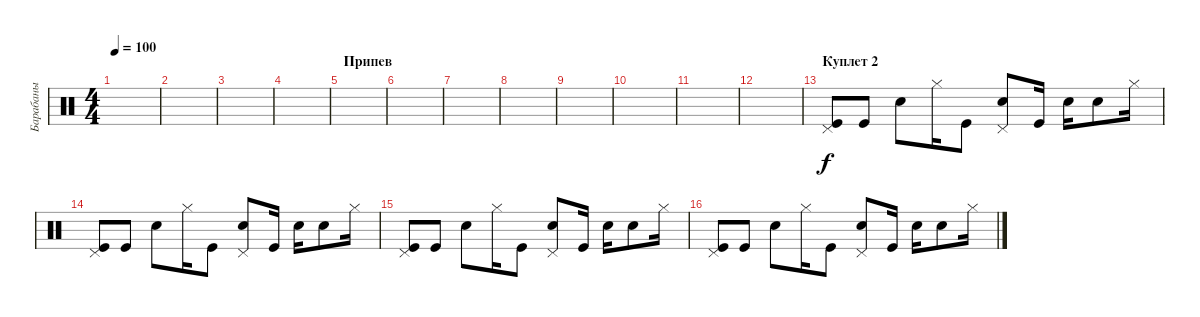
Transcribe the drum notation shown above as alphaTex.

\track ("Барабаны" "Барабаны") {instrument percussion}
\staff {score}
\articulation defaults
\ts (4 4)
\tempo 100
\clef neutral
\ks c
|
|
|
|
\section ("" "Припев")
|
|
|
|
|
|
|
|
\section ("" "Куплет 2")
("Kick (hit)" "Pedal Hi-Hat (hit)").8 "Kick (hit)".8 "Snare (hit) 2".8 "Hi-Hat (closed)".16 "Kick (hit)".8 ("Snare (hit) 2" "Pedal Hi-Hat (hit)").8 "Kick (hit)".16 "Snare (hit) 2".16 "Snare (hit) 2".8 "Hi-Hat (closed)".16 |
("Kick (hit)" "Pedal Hi-Hat (hit)").8 "Kick (hit)".8 "Snare (hit) 2".8 "Hi-Hat (closed)".16 "Kick (hit)".8 ("Snare (hit) 2" "Pedal Hi-Hat (hit)").8 "Kick (hit)".16 "Snare (hit) 2".16 "Snare (hit) 2".8 "Hi-Hat (closed)".16 |
("Kick (hit)" "Pedal Hi-Hat (hit)").8 "Kick (hit)".8 "Snare (hit) 2".8 "Hi-Hat (closed)".16 "Kick (hit)".8 ("Snare (hit) 2" "Pedal Hi-Hat (hit)").8 "Kick (hit)".16 "Snare (hit) 2".16 "Snare (hit) 2".8 "Hi-Hat (closed)".16 |
("Kick (hit)" "Pedal Hi-Hat (hit)").8 "Kick (hit)".8 "Snare (hit) 2".8 "Hi-Hat (closed)".16 "Kick (hit)".8 ("Snare (hit) 2" "Pedal Hi-Hat (hit)").8 "Kick (hit)".16 "Snare (hit) 2".16 "Snare (hit) 2".8 "Hi-Hat (closed)".16
